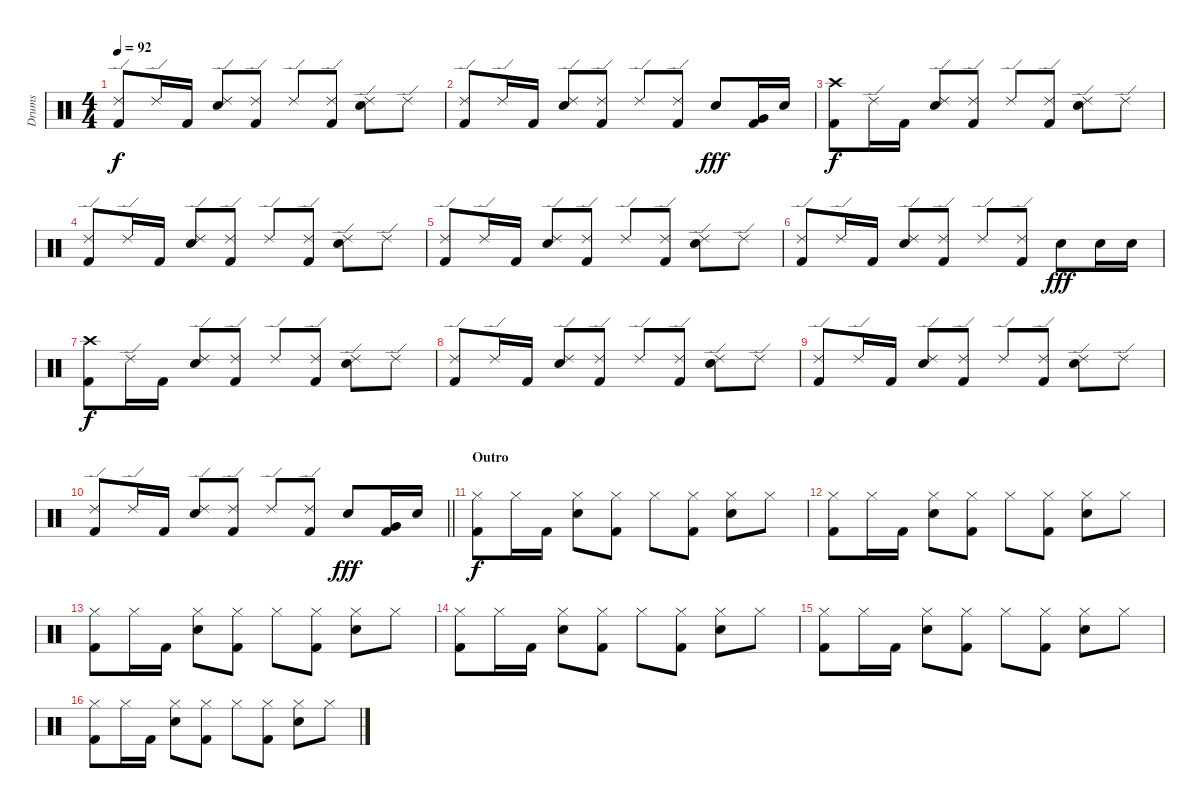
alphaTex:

\track ("Drums" "Drums") {instrument percussion}
\staff {score}
\articulation defaults
\ts (4 4)
\tempo 92
\clef neutral
\ks c
("Ride (edge) 2" "Kick (hit) 2").8{dy f} "Ride (edge) 2".16 "Kick (hit) 2".16 ("Ride (edge) 2" "Electric Snare (hit)").8 ("Ride (edge) 2" "Kick (hit) 2").8 "Ride (edge) 2".8 ("Ride (edge) 2" "Kick (hit) 2").8 ("Ride (edge) 2" "Electric Snare (hit)").8 "Ride (edge) 2".8 |
("Ride (edge) 2" "Kick (hit) 2").8 "Ride (edge) 2".16 "Kick (hit) 2".16 ("Ride (edge) 2" "Electric Snare (hit)").8 ("Ride (edge) 2" "Kick (hit) 2").8 "Ride (edge) 2".8 ("Ride (edge) 2" "Kick (hit) 2").8 "Electric Snare (hit)".8{dy fff} ("Very Low Tom (hit)" "Kick (hit) 2").16 "Electric Snare (hit)".16 |
("Crash high (hit)" "Kick (hit) 2").8{dy f} "Ride (edge) 2".16 "Kick (hit) 2".16 ("Ride (edge) 2" "Electric Snare (hit)").8 ("Ride (edge) 2" "Kick (hit) 2").8 "Ride (edge) 2".8 ("Ride (edge) 2" "Kick (hit) 2").8 ("Ride (edge) 2" "Electric Snare (hit)").8 "Ride (edge) 2".8 |
("Ride (edge) 2" "Kick (hit) 2").8 "Ride (edge) 2".16 "Kick (hit) 2".16 ("Ride (edge) 2" "Electric Snare (hit)").8 ("Ride (edge) 2" "Kick (hit) 2").8 "Ride (edge) 2".8 ("Ride (edge) 2" "Kick (hit) 2").8 ("Ride (edge) 2" "Electric Snare (hit)").8 "Ride (edge) 2".8 |
("Ride (edge) 2" "Kick (hit) 2").8 "Ride (edge) 2".16 "Kick (hit) 2".16 ("Ride (edge) 2" "Electric Snare (hit)").8 ("Ride (edge) 2" "Kick (hit) 2").8 "Ride (edge) 2".8 ("Ride (edge) 2" "Kick (hit) 2").8 ("Ride (edge) 2" "Electric Snare (hit)").8 "Ride (edge) 2".8 |
("Ride (edge) 2" "Kick (hit) 2").8 "Ride (edge) 2".16 "Kick (hit) 2".16 ("Ride (edge) 2" "Electric Snare (hit)").8 ("Ride (edge) 2" "Kick (hit) 2").8 "Ride (edge) 2".8 ("Ride (edge) 2" "Kick (hit) 2").8 "Electric Snare (hit)".8{dy fff} "Electric Snare (hit)".16 "Electric Snare (hit)".16 |
("Crash high (hit)" "Kick (hit) 2").8{dy f} "Ride (edge) 2".16 "Kick (hit) 2".16 ("Ride (edge) 2" "Electric Snare (hit)").8 ("Ride (edge) 2" "Kick (hit) 2").8 "Ride (edge) 2".8 ("Ride (edge) 2" "Kick (hit) 2").8 ("Ride (edge) 2" "Electric Snare (hit)").8 "Ride (edge) 2".8 |
("Ride (edge) 2" "Kick (hit) 2").8 "Ride (edge) 2".16 "Kick (hit) 2".16 ("Ride (edge) 2" "Electric Snare (hit)").8 ("Ride (edge) 2" "Kick (hit) 2").8 "Ride (edge) 2".8 ("Ride (edge) 2" "Kick (hit) 2").8 ("Ride (edge) 2" "Electric Snare (hit)").8 "Ride (edge) 2".8 |
("Ride (edge) 2" "Kick (hit) 2").8 "Ride (edge) 2".16 "Kick (hit) 2".16 ("Ride (edge) 2" "Electric Snare (hit)").8 ("Ride (edge) 2" "Kick (hit) 2").8 "Ride (edge) 2".8 ("Ride (edge) 2" "Kick (hit) 2").8 ("Ride (edge) 2" "Electric Snare (hit)").8 "Ride (edge) 2".8 |
\barLineRight lightlight
("Ride (edge) 2" "Kick (hit) 2").8 "Ride (edge) 2".16 "Kick (hit) 2".16 ("Ride (edge) 2" "Electric Snare (hit)").8 ("Ride (edge) 2" "Kick (hit) 2").8 "Ride (edge) 2".8 ("Ride (edge) 2" "Kick (hit) 2").8 "Electric Snare (hit)".8{dy fff} ("Very Low Tom (hit)" "Kick (hit) 2").16 "Electric Snare (hit)".16 |
\section ("" "Outro")
("Hi-Hat (closed)" "Kick (hit) 2").8{dy f} "Hi-Hat (closed)".16 "Kick (hit) 2".16 ("Hi-Hat (closed)" "Electric Snare (hit)").8 ("Hi-Hat (closed)" "Kick (hit) 2").8 "Hi-Hat (closed)".8 ("Hi-Hat (closed)" "Kick (hit) 2").8 ("Hi-Hat (closed)" "Electric Snare (hit)").8 "Hi-Hat (closed)".8 |
("Hi-Hat (closed)" "Kick (hit) 2").8 "Hi-Hat (closed)".16 "Kick (hit) 2".16 ("Hi-Hat (closed)" "Electric Snare (hit)").8 ("Hi-Hat (closed)" "Kick (hit) 2").8 "Hi-Hat (closed)".8 ("Hi-Hat (closed)" "Kick (hit) 2").8 ("Hi-Hat (closed)" "Electric Snare (hit)").8 "Hi-Hat (closed)".8 |
("Hi-Hat (closed)" "Kick (hit) 2").8 "Hi-Hat (closed)".16 "Kick (hit) 2".16 ("Hi-Hat (closed)" "Electric Snare (hit)").8 ("Hi-Hat (closed)" "Kick (hit) 2").8 "Hi-Hat (closed)".8 ("Hi-Hat (closed)" "Kick (hit) 2").8 ("Hi-Hat (closed)" "Electric Snare (hit)").8 "Hi-Hat (closed)".8 |
("Hi-Hat (closed)" "Kick (hit) 2").8 "Hi-Hat (closed)".16 "Kick (hit) 2".16 ("Hi-Hat (closed)" "Electric Snare (hit)").8 ("Hi-Hat (closed)" "Kick (hit) 2").8 "Hi-Hat (closed)".8 ("Hi-Hat (closed)" "Kick (hit) 2").8 ("Hi-Hat (closed)" "Electric Snare (hit)").8 "Hi-Hat (closed)".8 |
("Hi-Hat (closed)" "Kick (hit) 2").8 "Hi-Hat (closed)".16 "Kick (hit) 2".16 ("Hi-Hat (closed)" "Electric Snare (hit)").8 ("Hi-Hat (closed)" "Kick (hit) 2").8 "Hi-Hat (closed)".8 ("Hi-Hat (closed)" "Kick (hit) 2").8 ("Hi-Hat (closed)" "Electric Snare (hit)").8 "Hi-Hat (closed)".8 |
("Hi-Hat (closed)" "Kick (hit) 2").8 "Hi-Hat (closed)".16 "Kick (hit) 2".16 ("Hi-Hat (closed)" "Electric Snare (hit)").8 ("Hi-Hat (closed)" "Kick (hit) 2").8 "Hi-Hat (closed)".8 ("Hi-Hat (closed)" "Kick (hit) 2").8 ("Hi-Hat (closed)" "Electric Snare (hit)").8 "Hi-Hat (closed)".8
